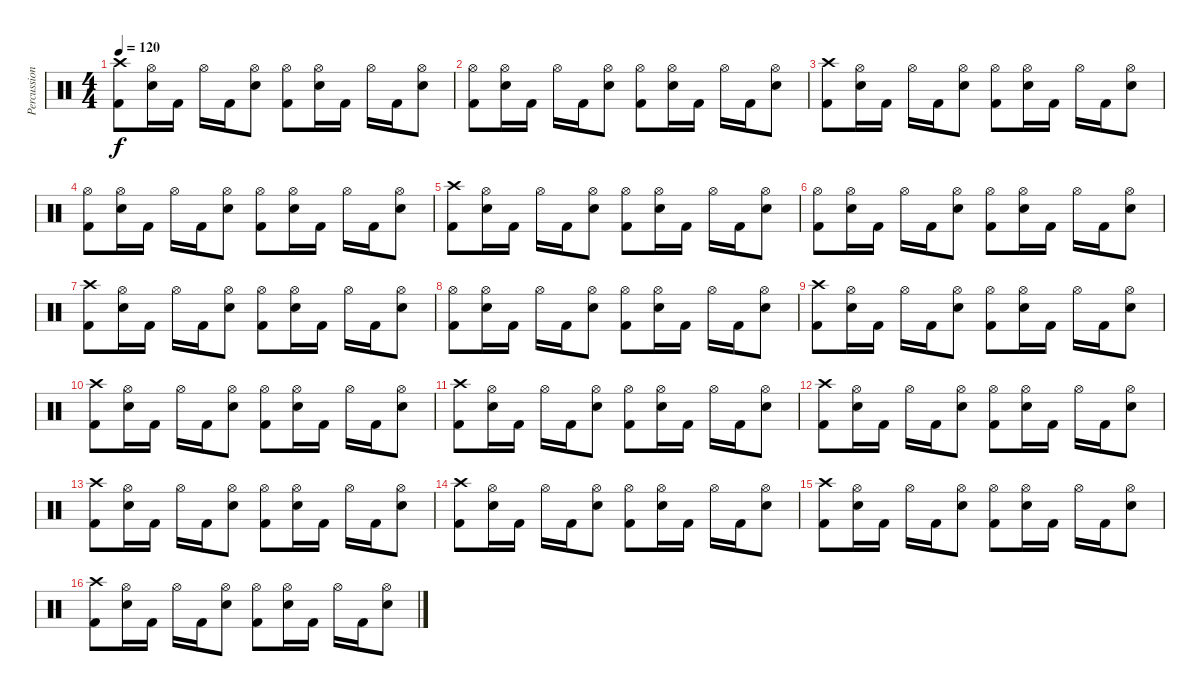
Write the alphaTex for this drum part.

\track ("Percussion" "Percussion") {instrument percussion}
\staff {score}
\articulation defaults
\ts (4 4)
\tempo 120
\clef neutral
\ks c
("Crash high (hit)" "Kick (hit) 2").8{dy f} ("Hi-Hat (open)" "Snare (hit) 2").16 "Kick (hit) 2".16 "Hi-Hat (open)".16 "Kick (hit) 2".16 ("Hi-Hat (open)" "Snare (hit) 2").8 ("Hi-Hat (open)" "Kick (hit) 2").8 ("Hi-Hat (open)" "Snare (hit) 2").16 "Kick (hit) 2".16 "Hi-Hat (open)".16 "Kick (hit) 2".16 ("Hi-Hat (open)" "Snare (hit) 2").8 |
("Hi-Hat (open)" "Kick (hit) 2").8 ("Hi-Hat (open)" "Snare (hit) 2").16 "Kick (hit) 2".16 "Hi-Hat (open)".16 "Kick (hit) 2".16 ("Hi-Hat (open)" "Snare (hit) 2").8 ("Hi-Hat (open)" "Kick (hit) 2").8 ("Hi-Hat (open)" "Snare (hit) 2").16 "Kick (hit) 2".16 "Hi-Hat (open)".16 "Kick (hit) 2".16 ("Hi-Hat (open)" "Snare (hit) 2").8 |
("Crash high (hit)" "Kick (hit) 2").8 ("Hi-Hat (open)" "Snare (hit) 2").16 "Kick (hit) 2".16 "Hi-Hat (open)".16 "Kick (hit) 2".16 ("Hi-Hat (open)" "Snare (hit) 2").8 ("Hi-Hat (open)" "Kick (hit) 2").8 ("Hi-Hat (open)" "Snare (hit) 2").16 "Kick (hit) 2".16 "Hi-Hat (open)".16 "Kick (hit) 2".16 ("Hi-Hat (open)" "Snare (hit) 2").8 |
("Hi-Hat (open)" "Kick (hit) 2").8 ("Hi-Hat (open)" "Snare (hit) 2").16 "Kick (hit) 2".16 "Hi-Hat (open)".16 "Kick (hit) 2".16 ("Hi-Hat (open)" "Snare (hit) 2").8 ("Hi-Hat (open)" "Kick (hit) 2").8 ("Hi-Hat (open)" "Snare (hit) 2").16 "Kick (hit) 2".16 "Hi-Hat (open)".16 "Kick (hit) 2".16 ("Hi-Hat (open)" "Snare (hit) 2").8 |
("Crash high (hit)" "Kick (hit) 2").8 ("Hi-Hat (open)" "Snare (hit) 2").16 "Kick (hit) 2".16 "Hi-Hat (open)".16 "Kick (hit) 2".16 ("Hi-Hat (open)" "Snare (hit) 2").8 ("Hi-Hat (open)" "Kick (hit) 2").8 ("Hi-Hat (open)" "Snare (hit) 2").16 "Kick (hit) 2".16 "Hi-Hat (open)".16 "Kick (hit) 2".16 ("Hi-Hat (open)" "Snare (hit) 2").8 |
("Hi-Hat (open)" "Kick (hit) 2").8 ("Hi-Hat (open)" "Snare (hit) 2").16 "Kick (hit) 2".16 "Hi-Hat (open)".16 "Kick (hit) 2".16 ("Hi-Hat (open)" "Snare (hit) 2").8 ("Hi-Hat (open)" "Kick (hit) 2").8 ("Hi-Hat (open)" "Snare (hit) 2").16 "Kick (hit) 2".16 "Hi-Hat (open)".16 "Kick (hit) 2".16 ("Hi-Hat (open)" "Snare (hit) 2").8 |
("Crash high (hit)" "Kick (hit) 2").8 ("Hi-Hat (open)" "Snare (hit) 2").16 "Kick (hit) 2".16 "Hi-Hat (open)".16 "Kick (hit) 2".16 ("Hi-Hat (open)" "Snare (hit) 2").8 ("Hi-Hat (open)" "Kick (hit) 2").8 ("Hi-Hat (open)" "Snare (hit) 2").16 "Kick (hit) 2".16 "Hi-Hat (open)".16 "Kick (hit) 2".16 ("Hi-Hat (open)" "Snare (hit) 2").8 |
("Hi-Hat (open)" "Kick (hit) 2").8 ("Hi-Hat (open)" "Snare (hit) 2").16 "Kick (hit) 2".16 "Hi-Hat (open)".16 "Kick (hit) 2".16 ("Hi-Hat (open)" "Snare (hit) 2").8 ("Hi-Hat (open)" "Kick (hit) 2").8 ("Hi-Hat (open)" "Snare (hit) 2").16 "Kick (hit) 2".16 "Hi-Hat (open)".16 "Kick (hit) 2".16 ("Hi-Hat (open)" "Snare (hit) 2").8 |
("Crash high (hit)" "Kick (hit) 2").8 ("Hi-Hat (open)" "Snare (hit) 2").16 "Kick (hit) 2".16 "Hi-Hat (open)".16 "Kick (hit) 2".16 ("Hi-Hat (open)" "Snare (hit) 2").8 ("Hi-Hat (open)" "Kick (hit) 2").8 ("Hi-Hat (open)" "Snare (hit) 2").16 "Kick (hit) 2".16 "Hi-Hat (open)".16 "Kick (hit) 2".16 ("Hi-Hat (open)" "Snare (hit) 2").8 |
("Crash high (hit)" "Kick (hit) 2").8 ("Hi-Hat (open)" "Snare (hit) 2").16 "Kick (hit) 2".16 "Hi-Hat (open)".16 "Kick (hit) 2".16 ("Hi-Hat (open)" "Snare (hit) 2").8 ("Hi-Hat (open)" "Kick (hit) 2").8 ("Hi-Hat (open)" "Snare (hit) 2").16 "Kick (hit) 2".16 "Hi-Hat (open)".16 "Kick (hit) 2".16 ("Hi-Hat (open)" "Snare (hit) 2").8 |
("Crash high (hit)" "Kick (hit) 2").8 ("Hi-Hat (open)" "Snare (hit) 2").16 "Kick (hit) 2".16 "Hi-Hat (open)".16 "Kick (hit) 2".16 ("Hi-Hat (open)" "Snare (hit) 2").8 ("Hi-Hat (open)" "Kick (hit) 2").8 ("Hi-Hat (open)" "Snare (hit) 2").16 "Kick (hit) 2".16 "Hi-Hat (open)".16 "Kick (hit) 2".16 ("Hi-Hat (open)" "Snare (hit) 2").8 |
("Crash high (hit)" "Kick (hit) 2").8 ("Hi-Hat (open)" "Snare (hit) 2").16 "Kick (hit) 2".16 "Hi-Hat (open)".16 "Kick (hit) 2".16 ("Hi-Hat (open)" "Snare (hit) 2").8 ("Hi-Hat (open)" "Kick (hit) 2").8 ("Hi-Hat (open)" "Snare (hit) 2").16 "Kick (hit) 2".16 "Hi-Hat (open)".16 "Kick (hit) 2".16 ("Hi-Hat (open)" "Snare (hit) 2").8 |
("Crash high (hit)" "Kick (hit) 2").8 ("Hi-Hat (open)" "Snare (hit) 2").16 "Kick (hit) 2".16 "Hi-Hat (open)".16 "Kick (hit) 2".16 ("Hi-Hat (open)" "Snare (hit) 2").8 ("Hi-Hat (open)" "Kick (hit) 2").8 ("Hi-Hat (open)" "Snare (hit) 2").16 "Kick (hit) 2".16 "Hi-Hat (open)".16 "Kick (hit) 2".16 ("Hi-Hat (open)" "Snare (hit) 2").8 |
("Crash high (hit)" "Kick (hit) 2").8 ("Hi-Hat (open)" "Snare (hit) 2").16 "Kick (hit) 2".16 "Hi-Hat (open)".16 "Kick (hit) 2".16 ("Hi-Hat (open)" "Snare (hit) 2").8 ("Hi-Hat (open)" "Kick (hit) 2").8 ("Hi-Hat (open)" "Snare (hit) 2").16 "Kick (hit) 2".16 "Hi-Hat (open)".16 "Kick (hit) 2".16 ("Hi-Hat (open)" "Snare (hit) 2").8 |
("Crash high (hit)" "Kick (hit) 2").8 ("Hi-Hat (open)" "Snare (hit) 2").16 "Kick (hit) 2".16 "Hi-Hat (open)".16 "Kick (hit) 2".16 ("Hi-Hat (open)" "Snare (hit) 2").8 ("Hi-Hat (open)" "Kick (hit) 2").8 ("Hi-Hat (open)" "Snare (hit) 2").16 "Kick (hit) 2".16 "Hi-Hat (open)".16 "Kick (hit) 2".16 ("Hi-Hat (open)" "Snare (hit) 2").8 |
("Crash high (hit)" "Kick (hit) 2").8 ("Hi-Hat (open)" "Snare (hit) 2").16 "Kick (hit) 2".16 "Hi-Hat (open)".16 "Kick (hit) 2".16 ("Hi-Hat (open)" "Snare (hit) 2").8 ("Hi-Hat (open)" "Kick (hit) 2").8 ("Hi-Hat (open)" "Snare (hit) 2").16 "Kick (hit) 2".16 "Hi-Hat (open)".16 "Kick (hit) 2".16 ("Hi-Hat (open)" "Snare (hit) 2").8
